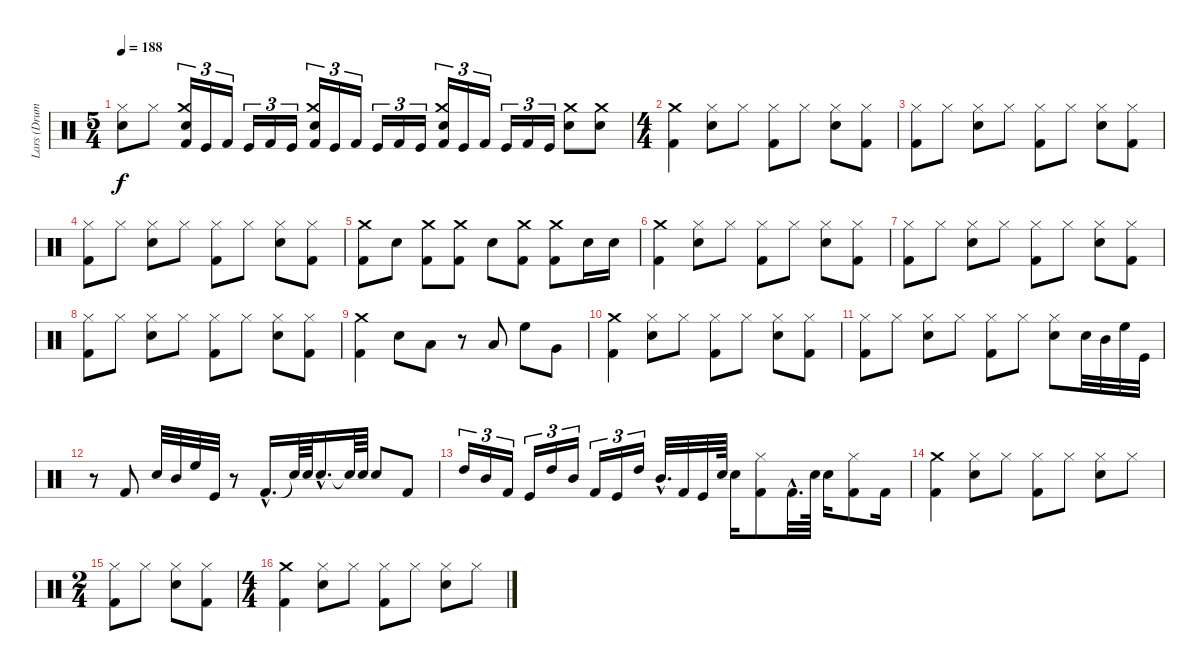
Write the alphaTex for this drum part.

\track ("Lars (Drums)" "Lars (Drum") {instrument percussion}
\staff {score}
\articulation defaults
\ts (5 4)
\tempo 188
\clef neutral
\ks c
("Snare (hit) 2" "Hi-Hat (closed)").8{dy f} "Hi-Hat (closed)".8 ("Snare (hit) 2" "Crash medium (hit)" "Kick (hit) 2").16{tu (3 2)} "Kick (hit)".16{tu (3 2)} "Kick (hit) 2".16{tu (3 2)} "Kick (hit)".16{tu (3 2)} "Kick (hit) 2".16{tu (3 2)} "Kick (hit)".16{tu (3 2)} ("Crash medium (hit)" "Snare (hit) 2" "Kick (hit) 2").16{tu (3 2)} "Kick (hit)".16{tu (3 2)} "Kick (hit) 2".16{tu (3 2)} "Kick (hit)".16{tu (3 2)} "Kick (hit) 2".16{tu (3 2)} "Kick (hit)".16{tu (3 2)} ("Crash medium (hit)" "Snare (hit) 2" "Kick (hit) 2").16{tu (3 2)} "Kick (hit)".16{tu (3 2)} "Kick (hit) 2".16{tu (3 2)} "Kick (hit)".16{tu (3 2)} "Kick (hit) 2".16{tu (3 2)} "Kick (hit)".16{tu (3 2)} ("Crash medium (hit)" "Snare (hit) 2").8 ("Crash medium (hit)" "Snare (hit) 2").8 |
\ts (4 4)
("Kick (hit) 2" "Crash medium (hit)").4 ("Snare (hit) 2" "Hi-Hat (closed)").8 "Hi-Hat (closed)".8 ("Hi-Hat (closed)" "Kick (hit) 2").8 "Hi-Hat (closed)".8 ("Snare (hit) 2" "Hi-Hat (closed)").8 ("Kick (hit) 2" "Hi-Hat (closed)").8 |
("Hi-Hat (closed)" "Kick (hit) 2").8 "Hi-Hat (closed)".8 ("Snare (hit) 2" "Hi-Hat (closed)").8 "Hi-Hat (closed)".8 ("Hi-Hat (closed)" "Kick (hit) 2").8 "Hi-Hat (closed)".8 ("Snare (hit) 2" "Hi-Hat (closed)").8 ("Kick (hit) 2" "Hi-Hat (closed)").8 |
("Hi-Hat (closed)" "Kick (hit) 2").8 "Hi-Hat (closed)".8 ("Snare (hit) 2" "Hi-Hat (closed)").8 "Hi-Hat (closed)".8 ("Hi-Hat (closed)" "Kick (hit) 2").8 "Hi-Hat (closed)".8 ("Snare (hit) 2" "Hi-Hat (closed)").8 ("Kick (hit) 2" "Hi-Hat (closed)").8 |
("Crash medium (hit)" "Kick (hit) 2").8 "Snare (hit) 2".8 ("Kick (hit) 2" "Crash medium (hit)").8 ("Kick (hit) 2" "Crash medium (hit)").8 "Snare (hit) 2".8 ("Crash medium (hit)" "Kick (hit) 2").8 ("Crash medium (hit)" "Kick (hit) 2").8 "Snare (hit) 2".16 "Snare (hit) 2".16 |
("Kick (hit) 2" "Crash medium (hit)").4 ("Snare (hit) 2" "Hi-Hat (closed)").8 "Hi-Hat (closed)".8 ("Hi-Hat (closed)" "Kick (hit) 2").8 "Hi-Hat (closed)".8 ("Snare (hit) 2" "Hi-Hat (closed)").8 ("Kick (hit) 2" "Hi-Hat (closed)").8 |
("Hi-Hat (closed)" "Kick (hit) 2").8 "Hi-Hat (closed)".8 ("Snare (hit) 2" "Hi-Hat (closed)").8 "Hi-Hat (closed)".8 ("Hi-Hat (closed)" "Kick (hit) 2").8 "Hi-Hat (closed)".8 ("Snare (hit) 2" "Hi-Hat (closed)").8 ("Kick (hit) 2" "Hi-Hat (closed)").8 |
("Hi-Hat (closed)" "Kick (hit) 2").8 "Hi-Hat (closed)".8 ("Snare (hit) 2" "Hi-Hat (closed)").8 "Hi-Hat (closed)".8 ("Hi-Hat (closed)" "Kick (hit) 2").8 "Hi-Hat (closed)".8 ("Snare (hit) 2" "Hi-Hat (closed)").8 ("Kick (hit) 2" "Hi-Hat (closed)").8 |
("Kick (hit) 2" "Crash medium (hit)").4 "Snare (hit) 2".8 "Low Tom (hit)".8 r.8 "Low Tom (hit)".8 "High Floor Tom (hit)".8 "Very Low Tom (hit)".8 |
("Kick (hit) 2" "Crash medium (hit)").4 ("Snare (hit) 2" "Hi-Hat (closed)").8 "Hi-Hat (closed)".8 ("Hi-Hat (closed)" "Kick (hit) 2").8 "Hi-Hat (closed)".8 ("Snare (hit) 2" "Hi-Hat (closed)").8 ("Kick (hit) 2" "Hi-Hat (closed)").8 |
("Hi-Hat (closed)" "Kick (hit) 2").8 "Hi-Hat (closed)".8 ("Snare (hit) 2" "Hi-Hat (closed)").8 "Hi-Hat (closed)".8 ("Hi-Hat (closed)" "Kick (hit) 2").8 "Hi-Hat (closed)".8 ("Snare (hit) 2" "Hi-Hat (closed)").8 "Snare (hit) 2".32 "Mid Tom (hit)".32 "High Floor Tom (hit)".32 "Kick (hit)".32 |
r.8 "Kick (hit) 2".8 "Snare (hit) 2".32 "Mid Tom (hit)".32 "High Floor Tom (hit)".32 "Kick (hit)".32 r.8 "Kick (hit) 2"{hac}.16{d} "Snare (hit)"{t}.64 "Snare (hit) 2".64 "Snare (hit) 2"{hac}.16{d} "Snare (hit)"{t}.64 "Snare (hit) 2".64 "Snare (hit) 2".8 "Kick (hit) 2".8 |
"High Tom (hit)".16{tu (3 2)} "Mid Tom (hit)".16{tu (3 2)} "Kick (hit) 2".16{tu (3 2)} "Kick (hit)".16{tu (3 2)} "High Tom (hit)".16{tu (3 2)} "Mid Tom (hit)".16{tu (3 2)} "Kick (hit) 2".16{tu (3 2)} "Kick (hit)".16{tu (3 2)} "High Tom (hit)".16{tu (3 2)} "Mid Tom (hit)"{hac}.32{d} "Kick (hit) 2".32 "Kick (hit)".32 "Snare (hit) 2".64 "Snare (hit) 2".16 ("Hi-Hat (closed)" "Kick (hit) 2").8 "Kick (hit) 2"{hac}.32{d} "Snare (hit) 2".64 "Snare (hit) 2".16 ("Hi-Hat (closed)" "Kick (hit) 2").8 "Kick (hit) 2".16 |
("Kick (hit) 2" "Crash medium (hit)").4 ("Hi-Hat (closed)" "Snare (hit) 2").8 "Hi-Hat (closed)".8 ("Hi-Hat (closed)" "Kick (hit) 2").8 "Hi-Hat (closed)".8 ("Snare (hit) 2" "Hi-Hat (closed)").8 "Hi-Hat (closed)".8 |
\ts (2 4)
("Kick (hit) 2" "Hi-Hat (closed)").8 "Hi-Hat (closed)".8 ("Snare (hit) 2" "Hi-Hat (closed)").8 ("Kick (hit) 2" "Hi-Hat (closed)").8 |
\ts (4 4)
("Kick (hit) 2" "Crash medium (hit)").4 ("Hi-Hat (closed)" "Snare (hit) 2").8 "Hi-Hat (closed)".8 ("Hi-Hat (closed)" "Kick (hit) 2").8 "Hi-Hat (closed)".8 ("Snare (hit) 2" "Hi-Hat (closed)").8 "Hi-Hat (closed)".8
